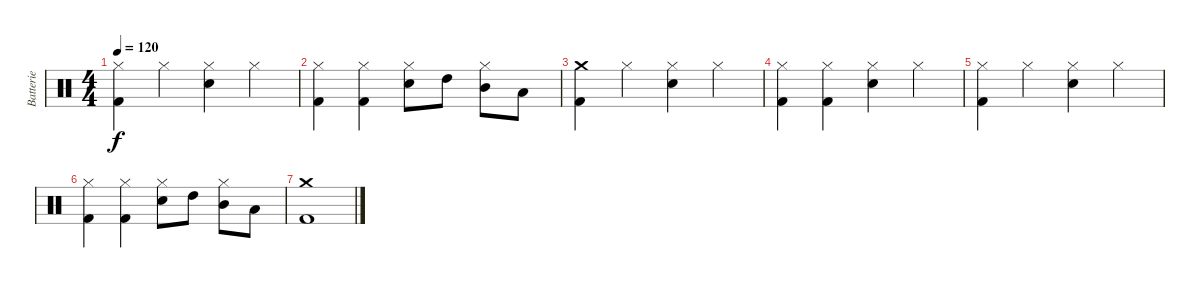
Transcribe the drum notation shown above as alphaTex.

\track ("Batterie" "Batterie") {instrument percussion}
\staff {score}
\articulation defaults
\ts (4 4)
\tempo 120
\clef neutral
\ks c
("Kick (hit) 2" "Hi-Hat (closed)").4{dy f} "Hi-Hat (closed)".4 ("Snare (hit) 2" "Hi-Hat (closed)").4 "Hi-Hat (closed)".4 |
("Kick (hit) 2" "Hi-Hat (closed)").4 ("Kick (hit) 2" "Hi-Hat (closed)").4 ("Snare (hit) 2" "Hi-Hat (closed)").8 "High Tom (hit)".8 ("Mid Tom (hit)" "Hi-Hat (closed)").8 "Low Tom (hit)".8 |
("Crash medium (hit)" "Kick (hit) 2").4 "Hi-Hat (closed)".4 ("Snare (hit) 2" "Hi-Hat (closed)").4 "Hi-Hat (closed)".4 |
("Kick (hit) 2" "Hi-Hat (closed)").4 ("Kick (hit) 2" "Hi-Hat (closed)").4 ("Snare (hit) 2" "Hi-Hat (closed)").4 "Hi-Hat (closed)".4 |
("Kick (hit) 2" "Hi-Hat (closed)").4 "Hi-Hat (closed)".4 ("Snare (hit) 2" "Hi-Hat (closed)").4 "Hi-Hat (closed)".4 |
("Kick (hit) 2" "Hi-Hat (closed)").4 ("Kick (hit) 2" "Hi-Hat (closed)").4 ("Snare (hit) 2" "Hi-Hat (closed)").8 "High Tom (hit)".8 ("Mid Tom (hit)" "Hi-Hat (closed)").8 "Low Tom (hit)".8 |
("Crash medium (hit)" "Kick (hit) 2").1
